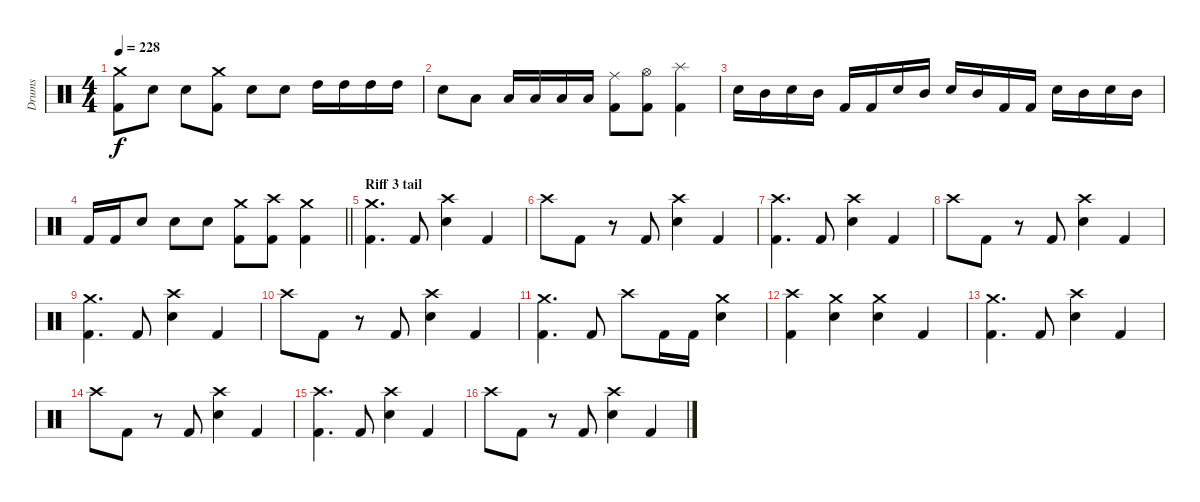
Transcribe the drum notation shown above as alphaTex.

\track ("Drums" "Drums") {instrument percussion}
\staff {score}
\articulation defaults
\ts (4 4)
\tempo 228
\clef neutral
\ks c
("Crash medium (hit)" "Kick (hit) 2").8{dy f} "Electric Snare (hit)".8 "Electric Snare (hit)".8 ("Kick (hit) 2" "Crash medium (hit)").8 "Electric Snare (hit)".8 "Electric Snare (hit)".8 "High Tom (hit)".16 "High Tom (hit)".16 "High Tom (hit)".16 "High Tom (hit)".16 |
"Electric Snare (hit)".8 "Low Tom (hit)".8 "Low Tom (hit)".16 "Low Tom (hit)".16 "Low Tom (hit)".16 "Low Tom (hit)".16 ("Ride (middle)" "Kick (hit) 2").8 ("Hi-Hat (open)" "Kick (hit) 2").8 ("Splash (hit)" "Kick (hit) 2").4 |
"Electric Snare (hit)".16 "Mid Tom (hit)".16 "Electric Snare (hit)".16 "Mid Tom (hit)".16 "Kick (hit) 2".16 "Kick (hit) 2".16 "Electric Snare (hit)".16 "Mid Tom (hit)".16 "Electric Snare (hit)".16 "Mid Tom (hit)".16 "Kick (hit) 2".16 "Kick (hit) 2".16 "Electric Snare (hit)".16 "Mid Tom (hit)".16 "Electric Snare (hit)".16 "Mid Tom (hit)".16 |
\barLineRight lightlight "Kick (hit) 2".16 "Kick (hit) 2".16 "Electric Snare (hit)".8 "Electric Snare (hit)".8 "Electric Snare (hit)".8
("Crash medium (hit)" "Kick (hit) 2").8 ("Crash high (hit)" "Kick (hit) 2").8 ("Crash medium (hit)" "Kick (hit) 2").4 |
\section ("" "Riff 3 tail")
("Crash medium (hit)" "Kick (hit) 2").4{d} "Kick (hit) 2".8 ("Crash high (hit)" "Electric Snare (hit)").4 "Kick (hit) 2".4 |
"Crash high (hit)".8 "Kick (hit) 2".8 r.8 "Kick (hit) 2".8 ("Electric Snare (hit)" "Crash high (hit)").4 "Kick (hit) 2".4 |
("Crash high (hit)" "Kick (hit) 2").4{d} "Kick (hit) 2".8 ("Crash high (hit)" "Electric Snare (hit)").4 "Kick (hit) 2".4 |
"Crash high (hit)".8 "Kick (hit) 2".8 r.8 "Kick (hit) 2".8 ("Electric Snare (hit)" "Crash high (hit)").4 "Kick (hit) 2".4 |
("Crash medium (hit)" "Kick (hit) 2").4{d} "Kick (hit) 2".8 ("Crash high (hit)" "Electric Snare (hit)").4 "Kick (hit) 2".4 |
"Crash high (hit)".8 "Kick (hit) 2".8 r.8 "Kick (hit) 2".8 ("Electric Snare (hit)" "Crash high (hit)").4 "Kick (hit) 2".4 |
("Crash medium (hit)" "Kick (hit) 2").4{d} "Kick (hit) 2".8 "Crash high (hit)".8 "Kick (hit) 2".16 "Kick (hit) 2".16 ("Electric Snare (hit)" "Crash medium (hit)").4 |
("Crash high (hit)" "Kick (hit) 2").4 ("Crash medium (hit)" "Electric Snare (hit)").4 ("Electric Snare (hit)" "Crash medium (hit)").4 "Kick (hit) 2".4 |
("Crash medium (hit)" "Kick (hit) 2").4{d} "Kick (hit) 2".8 ("Crash high (hit)" "Electric Snare (hit)").4 "Kick (hit) 2".4 |
"Crash high (hit)".8 "Kick (hit) 2".8 r.8 "Kick (hit) 2".8 ("Electric Snare (hit)" "Crash high (hit)").4 "Kick (hit) 2".4 |
("Crash high (hit)" "Kick (hit) 2").4{d} "Kick (hit) 2".8 ("Crash high (hit)" "Electric Snare (hit)").4 "Kick (hit) 2".4 |
"Crash high (hit)".8 "Kick (hit) 2".8 r.8 "Kick (hit) 2".8 ("Electric Snare (hit)" "Crash high (hit)").4 "Kick (hit) 2".4
